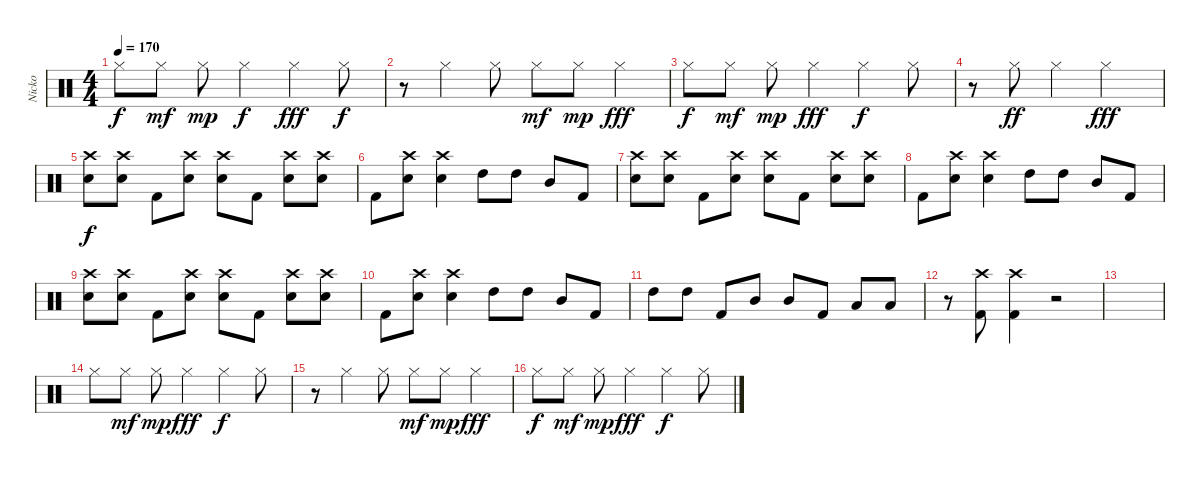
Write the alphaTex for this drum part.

\track ("Nicko" "Nicko") {instrument percussion}
\staff {score}
\articulation defaults
\ts (4 4)
\tempo 170
\clef neutral
\ks c "Hi-Hat (closed)".8{dy f} "Hi-Hat (closed)".8{dy mf} "Hi-Hat (closed)".8{dy mp} "Hi-Hat (closed)".4{dy f} "Hi-Hat (closed)".4{dy fff} "Hi-Hat (closed)".8{dy f}
|
r.8 "Hi-Hat (closed)".4 "Hi-Hat (closed)".8 "Hi-Hat (closed)".8{dy mf} "Hi-Hat (closed)".8{dy mp} "Hi-Hat (closed)".4{dy fff} |
"Hi-Hat (closed)".8{dy f} "Hi-Hat (closed)".8{dy mf} "Hi-Hat (closed)".8{dy mp} "Hi-Hat (closed)".4{dy fff} "Hi-Hat (closed)".4{dy f} "Hi-Hat (closed)".8 |
r.8 "Hi-Hat (closed)".8{dy ff} "Hi-Hat (closed)".4 "Hi-Hat (closed)".2{dy fff} |
("Crash high (hit)" "Snare (hit) 2").8{dy f} ("Crash high (hit)" "Snare (hit) 2").8 "Kick (hit) 2".8 ("Crash high (hit)" "Snare (hit) 2").8 ("Crash high (hit)" "Snare (hit) 2").8 "Kick (hit) 2".8 ("Crash high (hit)" "Snare (hit) 2").8 ("Crash high (hit)" "Snare (hit) 2").8 |
"Kick (hit) 2".8 ("Crash high (hit)" "Snare (hit) 2").8 ("Crash high (hit)" "Snare (hit) 2").4 "High Tom (hit)".8 "High Tom (hit)".8 "Mid Tom (hit)".8 "Kick (hit) 2".8 |
("Crash high (hit)" "Snare (hit) 2").8 ("Crash high (hit)" "Snare (hit) 2").8 "Kick (hit) 2".8 ("Crash high (hit)" "Snare (hit) 2").8 ("Crash high (hit)" "Snare (hit) 2").8 "Kick (hit) 2".8 ("Crash high (hit)" "Snare (hit) 2").8 ("Crash high (hit)" "Snare (hit) 2").8 |
"Kick (hit) 2".8 ("Crash high (hit)" "Snare (hit) 2").8 ("Crash high (hit)" "Snare (hit) 2").4 "High Tom (hit)".8 "High Tom (hit)".8 "Mid Tom (hit)".8 "Kick (hit) 2".8 |
("Crash high (hit)" "Snare (hit) 2").8 ("Crash high (hit)" "Snare (hit) 2").8 "Kick (hit) 2".8 ("Crash high (hit)" "Snare (hit) 2").8 ("Crash high (hit)" "Snare (hit) 2").8 "Kick (hit) 2".8 ("Crash high (hit)" "Snare (hit) 2").8 ("Crash high (hit)" "Snare (hit) 2").8 |
"Kick (hit) 2".8 ("Crash high (hit)" "Snare (hit) 2").8 ("Crash high (hit)" "Snare (hit) 2").4 "High Tom (hit)".8 "High Tom (hit)".8 "Mid Tom (hit)".8 "Kick (hit) 2".8 |
"High Tom (hit)".8 "High Tom (hit)".8 "Kick (hit) 2".8 "Mid Tom (hit)".8 "Mid Tom (hit)".8 "Kick (hit) 2".8 "Low Tom (hit)".8 "Low Tom (hit)".8 |
r.8 ("Crash high (hit)" "Kick (hit) 2").8 ("Crash high (hit)" "Kick (hit) 2").4 r.2 |
|
"Hi-Hat (closed)".8 "Hi-Hat (closed)".8{dy mf} "Hi-Hat (closed)".8{dy mp} "Hi-Hat (closed)".4{dy fff} "Hi-Hat (closed)".4{dy f} "Hi-Hat (closed)".8 |
r.8 "Hi-Hat (closed)".4 "Hi-Hat (closed)".8 "Hi-Hat (closed)".8{dy mf} "Hi-Hat (closed)".8{dy mp} "Hi-Hat (closed)".4{dy fff} |
"Hi-Hat (closed)".8{dy f} "Hi-Hat (closed)".8{dy mf} "Hi-Hat (closed)".8{dy mp} "Hi-Hat (closed)".4{dy fff} "Hi-Hat (closed)".4{dy f} "Hi-Hat (closed)".8
